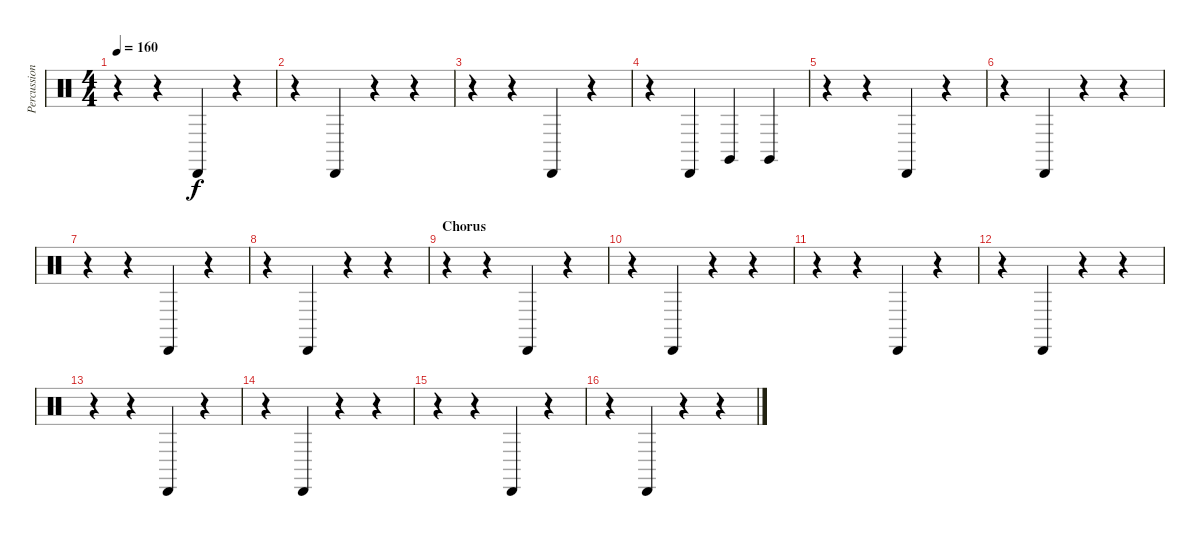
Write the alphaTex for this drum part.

\track ("Percussion" "Percussion") {instrument percussion}
\staff {score}
\articulation defaults
\ts (4 4)
\tempo 160
\clef neutral
\ks c
r.4{dy f} r.4 "Cabasa (hit)".4 r.4 |
r.4 "Cabasa (hit)".4 r.4 r.4 |
r.4 r.4 "Cabasa (hit)".4 r.4 |
r.4 "Cabasa (hit)".4 "Claves (hit)".4 "Claves (hit)".4 |
r.4 r.4 "Cabasa (hit)".4 r.4 |
r.4 "Cabasa (hit)".4 r.4 r.4 |
r.4 r.4 "Cabasa (hit)".4 r.4 |
r.4 "Cabasa (hit)".4 r.4 r.4 |
\section ("" "Chorus")
r.4 r.4 "Cabasa (hit)".4 r.4 |
r.4 "Cabasa (hit)".4 r.4 r.4 |
r.4 r.4 "Cabasa (hit)".4 r.4 |
r.4 "Cabasa (hit)".4 r.4 r.4 |
r.4 r.4 "Cabasa (hit)".4 r.4 |
r.4 "Cabasa (hit)".4 r.4 r.4 |
r.4 r.4 "Cabasa (hit)".4 r.4 |
r.4 "Cabasa (hit)".4 r.4 r.4
